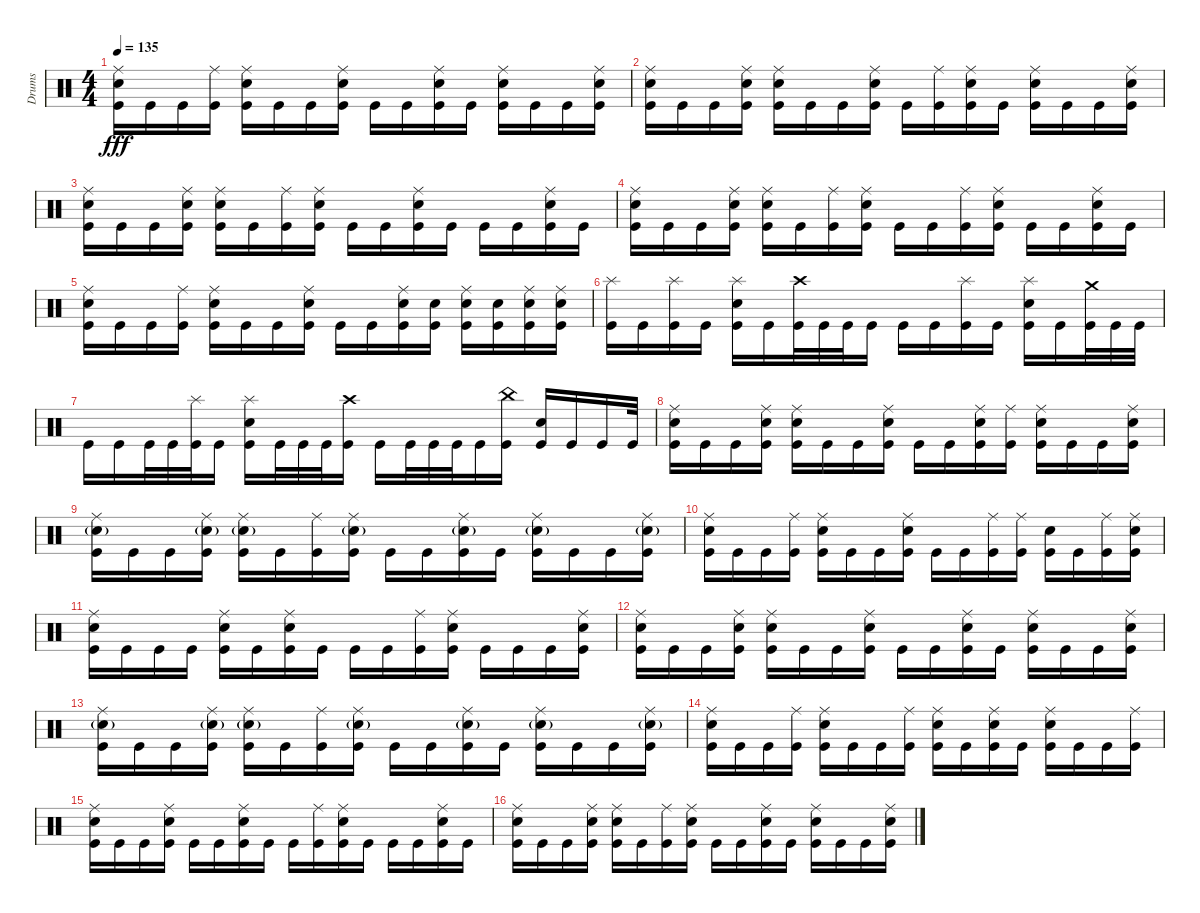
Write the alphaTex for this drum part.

\track ("Drums" "Drums") {instrument percussion}
\staff {score}
\articulation defaults
\ts (4 4)
\tempo 135
\clef neutral
\ks c
("Ride (middle)" "Electric Snare (hit)" "Kick (hit)").16{dy fff} "Kick (hit)".16 "Kick (hit)".16 ("Ride (middle)" "Kick (hit)").16 ("Ride (middle)" "Electric Snare (hit)" "Kick (hit)").16 "Kick (hit)".16 "Kick (hit)".16 ("Ride (middle)" "Electric Snare (hit)" "Kick (hit)").16 "Kick (hit)".16 "Kick (hit)".16 ("Ride (middle)" "Electric Snare (hit)" "Kick (hit)").16 "Kick (hit)".16 ("Ride (middle)" "Electric Snare (hit)" "Kick (hit)").16 "Kick (hit)".16 "Kick (hit)".16 ("Ride (middle)" "Electric Snare (hit)" "Kick (hit)").16 |
("Ride (middle)" "Electric Snare (hit)" "Kick (hit)").16 "Kick (hit)".16 "Kick (hit)".16 ("Ride (middle)" "Electric Snare (hit)" "Kick (hit)").16 ("Ride (middle)" "Electric Snare (hit)" "Kick (hit)").16 "Kick (hit)".16 "Kick (hit)".16 ("Ride (middle)" "Electric Snare (hit)" "Kick (hit)").16 "Kick (hit)".16 ("Ride (middle)" "Kick (hit)").16 ("Ride (middle)" "Electric Snare (hit)" "Kick (hit)").16 "Kick (hit)".16 ("Ride (middle)" "Electric Snare (hit)" "Kick (hit)").16 "Kick (hit)".16 "Kick (hit)".16 ("Ride (middle)" "Electric Snare (hit)" "Kick (hit)").16 |
("Ride (middle)" "Electric Snare (hit)" "Kick (hit)").16 "Kick (hit)".16 "Kick (hit)".16 ("Ride (middle)" "Electric Snare (hit)" "Kick (hit)").16 ("Ride (middle)" "Electric Snare (hit)" "Kick (hit)").16 "Kick (hit)".16 ("Ride (middle)" "Kick (hit)").16 ("Ride (middle)" "Electric Snare (hit)" "Kick (hit)").16 "Kick (hit)".16 "Kick (hit)".16 ("Ride (middle)" "Electric Snare (hit)" "Kick (hit)").16 "Kick (hit)".16 "Kick (hit)".16 "Kick (hit)".16 ("Ride (middle)" "Electric Snare (hit)" "Kick (hit)").16 "Kick (hit)".16 |
("Ride (middle)" "Electric Snare (hit)" "Kick (hit)").16 "Kick (hit)".16 "Kick (hit)".16 ("Ride (middle)" "Electric Snare (hit)" "Kick (hit)").16 ("Ride (middle)" "Electric Snare (hit)" "Kick (hit)").16 "Kick (hit)".16 ("Ride (middle)" "Kick (hit)").16 ("Ride (middle)" "Electric Snare (hit)" "Kick (hit)").16 "Kick (hit)".16 "Kick (hit)".16 ("Ride (middle)" "Kick (hit)").16 ("Ride (middle)" "Electric Snare (hit)" "Kick (hit)").16 "Kick (hit)".16 "Kick (hit)".16 ("Ride (middle)" "Electric Snare (hit)" "Kick (hit)").16 "Kick (hit)".16 |
("Ride (middle)" "Electric Snare (hit)" "Kick (hit)").16 "Kick (hit)".16 "Kick (hit)".16 ("Ride (middle)" "Kick (hit)").16 ("Ride (middle)" "Electric Snare (hit)" "Kick (hit)").16 "Kick (hit)".16 "Kick (hit)".16 ("Ride (middle)" "Electric Snare (hit)" "Kick (hit)").16 "Kick (hit)".16 "Kick (hit)".16 ("Ride (middle)" "Electric Snare (hit)" "Kick (hit)").16 ("Electric Snare (hit)" "Kick (hit)").16 ("Ride (middle)" "Electric Snare (hit)" "Kick (hit)").16 ("Electric Snare (hit)" "Kick (hit)").16 ("Ride (middle)" "Electric Snare (hit)" "Kick (hit)").16 ("Ride (middle)" "Electric Snare (hit)" "Kick (hit)").16 |
("Splash (hit)" "Kick (hit)").16 "Kick (hit)".16 ("Splash (hit)" "Kick (hit)").16 "Kick (hit)".16 ("Splash (hit)" "Electric Snare (hit)" "Kick (hit)").16 "Kick (hit)".16 ("Crash high (hit)" "Kick (hit)").32 "Kick (hit)".32 "Kick (hit)".32 "Kick (hit)".16 "Kick (hit)".16 "Kick (hit)".16 ("Splash (hit)" "Kick (hit)").16 "Kick (hit)".16 ("Splash (hit)" "Electric Snare (hit)" "Kick (hit)").16 "Kick (hit)".16 ("Crash medium (hit)" "Kick (hit)").32 "Kick (hit)".32 "Kick (hit)".32 |
"Kick (hit)".16 "Kick (hit)".16 "Kick (hit)".32 "Kick (hit)".32 ("Splash (hit)" "Kick (hit)").32 "Kick (hit)".16 ("Splash (hit)" "Electric Snare (hit)" "Kick (hit)").16 "Kick (hit)".32 "Kick (hit)".32 "Kick (hit)".32 ("Crash high (hit)" "Kick (hit)").16 "Kick (hit)".16 "Kick (hit)".32 "Kick (hit)".32 "Kick (hit)".32 "Kick (hit)".16 ("China (hit)" "Kick (hit)").16 ("Electric Snare (hit)" "Kick (hit)").16 "Kick (hit)".16 "Kick (hit)".16 "Kick (hit)".32 |
("Ride (middle)" "Electric Snare (hit)" "Kick (hit)").16 "Kick (hit)".16 "Kick (hit)".16 ("Ride (middle)" "Electric Snare (hit)" "Kick (hit)").16 ("Ride (middle)" "Electric Snare (hit)" "Kick (hit)").16 "Kick (hit)".16 "Kick (hit)".16 ("Ride (middle)" "Electric Snare (hit)" "Kick (hit)").16 "Kick (hit)".16 "Kick (hit)".16 ("Ride (middle)" "Electric Snare (hit)" "Kick (hit)").16 ("Ride (middle)" "Kick (hit)").16 ("Ride (middle)" "Electric Snare (hit)" "Kick (hit)").16 "Kick (hit)".16 "Kick (hit)".16 ("Ride (middle)" "Electric Snare (hit)" "Kick (hit)").16 |
("Ride (middle)" "Electric Snare (hit)"{g} "Kick (hit)").16 "Kick (hit)".16 "Kick (hit)".16 ("Ride (middle)" "Electric Snare (hit)"{g} "Kick (hit)").16 ("Ride (middle)" "Electric Snare (hit)"{g} "Kick (hit)").16 "Kick (hit)".16 ("Ride (middle)" "Kick (hit)").16 ("Ride (middle)" "Electric Snare (hit)"{g} "Kick (hit)").16 "Kick (hit)".16 "Kick (hit)".16 ("Ride (middle)" "Electric Snare (hit)"{g} "Kick (hit)").16 "Kick (hit)".16 ("Ride (middle)" "Electric Snare (hit)"{g} "Kick (hit)").16 "Kick (hit)".16 "Kick (hit)".16 ("Ride (middle)" "Electric Snare (hit)"{g} "Kick (hit)").16 |
("Ride (middle)" "Electric Snare (hit)" "Kick (hit)").16 "Kick (hit)".16 "Kick (hit)".16 ("Ride (middle)" "Kick (hit)").16 ("Ride (middle)" "Electric Snare (hit)" "Kick (hit)").16 "Kick (hit)".16 "Kick (hit)".16 ("Ride (middle)" "Electric Snare (hit)" "Kick (hit)").16 "Kick (hit)".16 "Kick (hit)".16 ("Ride (middle)" "Kick (hit)").16 ("Ride (middle)" "Kick (hit)").16 ("Electric Snare (hit)" "Kick (hit)").16 "Kick (hit)".16 ("Ride (middle)" "Kick (hit)").16 ("Ride (middle)" "Electric Snare (hit)" "Kick (hit)").16 |
("Ride (middle)" "Electric Snare (hit)" "Kick (hit)").16 "Kick (hit)".16 "Kick (hit)".16 "Kick (hit)".16 ("Ride (middle)" "Electric Snare (hit)" "Kick (hit)").16 "Kick (hit)".16 ("Ride (middle)" "Electric Snare (hit)" "Kick (hit)").16 "Kick (hit)".16 "Kick (hit)".16 "Kick (hit)".16 ("Ride (middle)" "Kick (hit)").16 ("Ride (middle)" "Electric Snare (hit)" "Kick (hit)").16 "Kick (hit)".16 "Kick (hit)".16 "Kick (hit)".16 ("Ride (middle)" "Electric Snare (hit)" "Kick (hit)").16 |
("Ride (middle)" "Electric Snare (hit)" "Kick (hit)").16 "Kick (hit)".16 "Kick (hit)".16 ("Ride (middle)" "Electric Snare (hit)" "Kick (hit)").16 ("Ride (middle)" "Electric Snare (hit)" "Kick (hit)").16 "Kick (hit)".16 "Kick (hit)".16 ("Ride (middle)" "Electric Snare (hit)" "Kick (hit)").16 "Kick (hit)".16 "Kick (hit)".16 ("Ride (middle)" "Electric Snare (hit)" "Kick (hit)").16 "Kick (hit)".16 ("Ride (middle)" "Electric Snare (hit)" "Kick (hit)").16 "Kick (hit)".16 "Kick (hit)".16 ("Ride (middle)" "Electric Snare (hit)" "Kick (hit)").16 |
("Ride (middle)" "Electric Snare (hit)"{g} "Kick (hit)").16 "Kick (hit)".16 "Kick (hit)".16 ("Ride (middle)" "Electric Snare (hit)"{g} "Kick (hit)").16 ("Ride (middle)" "Electric Snare (hit)"{g} "Kick (hit)").16 "Kick (hit)".16 ("Ride (middle)" "Kick (hit)").16 ("Ride (middle)" "Electric Snare (hit)"{g} "Kick (hit)").16 "Kick (hit)".16 "Kick (hit)".16 ("Ride (middle)" "Electric Snare (hit)"{g} "Kick (hit)").16 "Kick (hit)".16 ("Ride (middle)" "Electric Snare (hit)"{g} "Kick (hit)").16 "Kick (hit)".16 "Kick (hit)".16 ("Ride (middle)" "Electric Snare (hit)"{g} "Kick (hit)").16 |
("Ride (middle)" "Electric Snare (hit)" "Kick (hit)").16 "Kick (hit)".16 "Kick (hit)".16 ("Ride (middle)" "Kick (hit)").16 ("Ride (middle)" "Electric Snare (hit)" "Kick (hit)").16 "Kick (hit)".16 "Kick (hit)".16 ("Ride (middle)" "Kick (hit)").16 ("Ride (middle)" "Electric Snare (hit)" "Kick (hit)").16 "Kick (hit)".16 ("Ride (middle)" "Electric Snare (hit)" "Kick (hit)").16 "Kick (hit)".16 ("Ride (middle)" "Electric Snare (hit)" "Kick (hit)").16 "Kick (hit)".16 "Kick (hit)".16 ("Ride (middle)" "Kick (hit)").16 |
("Ride (middle)" "Electric Snare (hit)" "Kick (hit)").16 "Kick (hit)".16 "Kick (hit)".16 ("Ride (middle)" "Electric Snare (hit)" "Kick (hit)").16 "Kick (hit)".16 "Kick (hit)".16 ("Ride (middle)" "Electric Snare (hit)" "Kick (hit)").16 "Kick (hit)".16 "Kick (hit)".16 ("Ride (middle)" "Kick (hit)").16 ("Ride (middle)" "Electric Snare (hit)" "Kick (hit)").16 "Kick (hit)".16 "Kick (hit)".16 "Kick (hit)".16 ("Ride (middle)" "Electric Snare (hit)" "Kick (hit)").16 "Kick (hit)".16 |
("Ride (middle)" "Electric Snare (hit)" "Kick (hit)").16 "Kick (hit)".16 "Kick (hit)".16 ("Ride (middle)" "Electric Snare (hit)" "Kick (hit)").16 ("Ride (middle)" "Electric Snare (hit)" "Kick (hit)").16 "Kick (hit)".16 ("Ride (middle)" "Kick (hit)").16 ("Ride (middle)" "Electric Snare (hit)" "Kick (hit)").16 "Kick (hit)".16 "Kick (hit)".16 ("Ride (middle)" "Electric Snare (hit)" "Kick (hit)").16 "Kick (hit)".16 ("Ride (middle)" "Electric Snare (hit)" "Kick (hit)").16 "Kick (hit)".16 "Kick (hit)".16 ("Ride (middle)" "Electric Snare (hit)" "Kick (hit)").16
